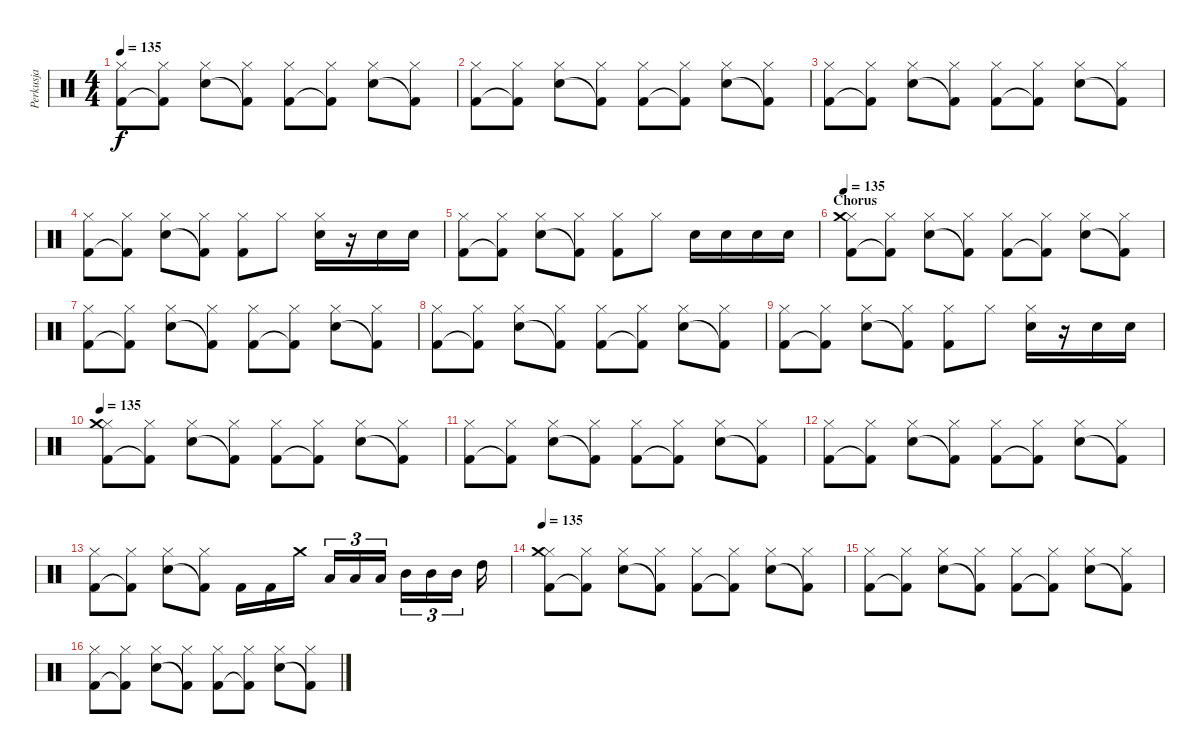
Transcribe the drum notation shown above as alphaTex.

\track ("Perkusja" "Perkusja") {instrument percussion}
\staff {score}
\articulation defaults
\ts (4 4)
\tempo 135
\clef neutral
\ks c
("Kick (hit) 2" "Hi-Hat (closed)").8{dy f} ("Kick (hit) 2"{t} "Hi-Hat (closed)").8 ("Snare (hit) 2" "Hi-Hat (closed)").8 ("Kick (hit) 2"{t} "Hi-Hat (closed)").8 ("Kick (hit) 2" "Hi-Hat (closed)").8 ("Kick (hit) 2"{t} "Hi-Hat (closed)").8 ("Snare (hit) 2" "Hi-Hat (closed)").8 ("Kick (hit) 2"{t} "Hi-Hat (closed)").8 |
("Kick (hit) 2" "Hi-Hat (closed)").8 ("Kick (hit) 2"{t} "Hi-Hat (closed)").8 ("Snare (hit) 2" "Hi-Hat (closed)").8 ("Kick (hit) 2"{t} "Hi-Hat (closed)").8 ("Kick (hit) 2" "Hi-Hat (closed)").8 ("Kick (hit) 2"{t} "Hi-Hat (closed)").8 ("Snare (hit) 2" "Hi-Hat (closed)").8 ("Kick (hit) 2"{t} "Hi-Hat (closed)").8 |
("Kick (hit) 2" "Hi-Hat (closed)").8 ("Kick (hit) 2"{t} "Hi-Hat (closed)").8 ("Snare (hit) 2" "Hi-Hat (closed)").8 ("Kick (hit) 2"{t} "Hi-Hat (closed)").8 ("Kick (hit) 2" "Hi-Hat (closed)").8 ("Kick (hit) 2"{t} "Hi-Hat (closed)").8 ("Snare (hit) 2" "Hi-Hat (closed)").8 ("Kick (hit) 2"{t} "Hi-Hat (closed)").8 |
("Kick (hit) 2" "Hi-Hat (closed)").8 ("Kick (hit) 2"{t} "Hi-Hat (closed)").8 ("Snare (hit) 2" "Hi-Hat (closed)").8 ("Kick (hit) 2"{t} "Hi-Hat (closed)").8 ("Kick (hit) 2" "Hi-Hat (closed)").8 "Hi-Hat (closed)".8 ("Snare (hit) 2" "Hi-Hat (closed)").16 r.16 "Snare (hit) 2".16 "Snare (hit) 2".16 |
("Kick (hit) 2" "Hi-Hat (closed)").8 ("Kick (hit) 2"{t} "Hi-Hat (closed)").8 ("Snare (hit) 2" "Hi-Hat (closed)").8 ("Kick (hit) 2"{t} "Hi-Hat (closed)").8 ("Kick (hit) 2" "Hi-Hat (closed)").8 "Hi-Hat (closed)".8 "Snare (hit) 2".16 "Snare (hit) 2".16 "Snare (hit) 2".16 "Snare (hit) 2".16 |
\section ("" "Chorus")
\tempo 135
("Kick (hit) 2" "Hi-Hat (closed)" "Crash medium (hit)").8 ("Kick (hit) 2"{t} "Hi-Hat (closed)").8 ("Snare (hit) 2" "Hi-Hat (closed)").8 ("Kick (hit) 2"{t} "Hi-Hat (closed)").8 ("Kick (hit) 2" "Hi-Hat (closed)").8 ("Kick (hit) 2"{t} "Hi-Hat (closed)").8 ("Snare (hit) 2" "Hi-Hat (closed)").8 ("Kick (hit) 2"{t} "Hi-Hat (closed)").8 |
("Kick (hit) 2" "Hi-Hat (closed)").8 ("Kick (hit) 2"{t} "Hi-Hat (closed)").8 ("Snare (hit) 2" "Hi-Hat (closed)").8 ("Kick (hit) 2"{t} "Hi-Hat (closed)").8 ("Kick (hit) 2" "Hi-Hat (closed)").8 ("Kick (hit) 2"{t} "Hi-Hat (closed)").8 ("Snare (hit) 2" "Hi-Hat (closed)").8 ("Kick (hit) 2"{t} "Hi-Hat (closed)").8 |
("Kick (hit) 2" "Hi-Hat (closed)").8 ("Kick (hit) 2"{t} "Hi-Hat (closed)").8 ("Snare (hit) 2" "Hi-Hat (closed)").8 ("Kick (hit) 2"{t} "Hi-Hat (closed)").8 ("Kick (hit) 2" "Hi-Hat (closed)").8 ("Kick (hit) 2"{t} "Hi-Hat (closed)").8 ("Snare (hit) 2" "Hi-Hat (closed)").8 ("Kick (hit) 2"{t} "Hi-Hat (closed)").8 |
("Kick (hit) 2" "Hi-Hat (closed)").8 ("Kick (hit) 2"{t} "Hi-Hat (closed)").8 ("Snare (hit) 2" "Hi-Hat (closed)").8 ("Kick (hit) 2"{t} "Hi-Hat (closed)").8 ("Kick (hit) 2" "Hi-Hat (closed)").8 "Hi-Hat (closed)".8 ("Snare (hit) 2" "Hi-Hat (closed)").16 r.16 "Snare (hit) 2".16 "Snare (hit) 2".16 |
\tempo 135
("Kick (hit) 2" "Hi-Hat (closed)" "Crash medium (hit)").8 ("Kick (hit) 2"{t} "Hi-Hat (closed)").8 ("Snare (hit) 2" "Hi-Hat (closed)").8 ("Kick (hit) 2"{t} "Hi-Hat (closed)").8 ("Kick (hit) 2" "Hi-Hat (closed)").8 ("Kick (hit) 2"{t} "Hi-Hat (closed)").8 ("Snare (hit) 2" "Hi-Hat (closed)").8 ("Kick (hit) 2"{t} "Hi-Hat (closed)").8 |
("Kick (hit) 2" "Hi-Hat (closed)").8 ("Kick (hit) 2"{t} "Hi-Hat (closed)").8 ("Snare (hit) 2" "Hi-Hat (closed)").8 ("Kick (hit) 2"{t} "Hi-Hat (closed)").8 ("Kick (hit) 2" "Hi-Hat (closed)").8 ("Kick (hit) 2"{t} "Hi-Hat (closed)").8 ("Snare (hit) 2" "Hi-Hat (closed)").8 ("Kick (hit) 2"{t} "Hi-Hat (closed)").8 |
("Kick (hit) 2" "Hi-Hat (closed)").8 ("Kick (hit) 2"{t} "Hi-Hat (closed)").8 ("Snare (hit) 2" "Hi-Hat (closed)").8 ("Kick (hit) 2"{t} "Hi-Hat (closed)").8 ("Kick (hit) 2" "Hi-Hat (closed)").8 ("Kick (hit) 2"{t} "Hi-Hat (closed)").8 ("Snare (hit) 2" "Hi-Hat (closed)").8 ("Kick (hit) 2"{t} "Hi-Hat (closed)").8 |
("Kick (hit) 2" "Hi-Hat (closed)").8 ("Kick (hit) 2"{t} "Hi-Hat (closed)").8 ("Snare (hit) 2" "Hi-Hat (closed)").8 ("Kick (hit) 2"{t} "Hi-Hat (closed)").8 "Kick (hit) 2".16 "Kick (hit) 2".16 "Crash medium (hit)".16 "Low Tom (hit)".16{tu (3 2)} "Low Tom (hit)".16{tu (3 2)} "Low Tom (hit)".16{tu (3 2)} "Mid Tom (hit)".16{tu (3 2)} "Mid Tom (hit)".16{tu (3 2)} "Mid Tom (hit)".16{tu (3 2)} "High Tom (hit)".16 |
\tempo 135
("Kick (hit) 2" "Hi-Hat (closed)" "Crash medium (hit)").8 ("Kick (hit) 2"{t} "Hi-Hat (closed)").8 ("Snare (hit) 2" "Hi-Hat (closed)").8 ("Kick (hit) 2"{t} "Hi-Hat (closed)").8 ("Kick (hit) 2" "Hi-Hat (closed)").8 ("Kick (hit) 2"{t} "Hi-Hat (closed)").8 ("Snare (hit) 2" "Hi-Hat (closed)").8 ("Kick (hit) 2"{t} "Hi-Hat (closed)").8 |
("Kick (hit) 2" "Hi-Hat (closed)").8 ("Kick (hit) 2"{t} "Hi-Hat (closed)").8 ("Snare (hit) 2" "Hi-Hat (closed)").8 ("Kick (hit) 2"{t} "Hi-Hat (closed)").8 ("Kick (hit) 2" "Hi-Hat (closed)").8 ("Kick (hit) 2"{t} "Hi-Hat (closed)").8 ("Snare (hit) 2" "Hi-Hat (closed)").8 ("Kick (hit) 2"{t} "Hi-Hat (closed)").8 |
("Kick (hit) 2" "Hi-Hat (closed)").8 ("Kick (hit) 2"{t} "Hi-Hat (closed)").8 ("Snare (hit) 2" "Hi-Hat (closed)").8 ("Kick (hit) 2"{t} "Hi-Hat (closed)").8 ("Kick (hit) 2" "Hi-Hat (closed)").8 ("Kick (hit) 2"{t} "Hi-Hat (closed)").8 ("Snare (hit) 2" "Hi-Hat (closed)").8 ("Kick (hit) 2"{t} "Hi-Hat (closed)").8
